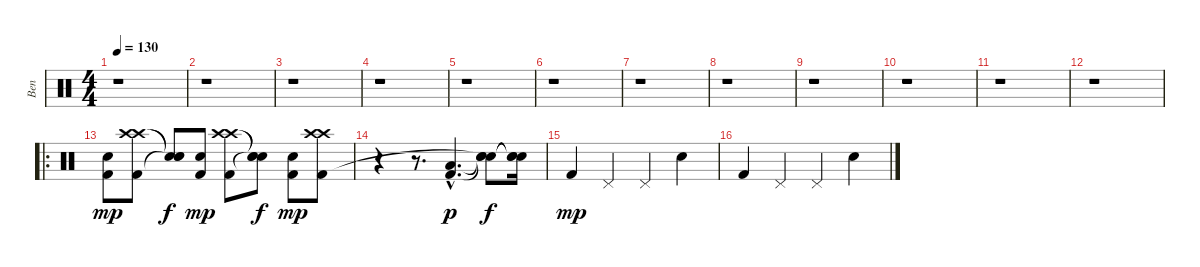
\track ("Ben" "Ben") {instrument percussion}
\staff {score}
\articulation defaults
\ts (4 4)
\tempo 130
\clef neutral
\ks c
r.1{dy mp} |
r.1 |
r.1 |
r.1 |
r.1 |
r.1 |
r.1 |
r.1 |
r.1 |
r.1 |
r.1 |
r.1 |
\ro
("Electric Snare (hit)" "Kick (hit) 2").8 ("Crash high (hit)" "Crash high (hit)" "Kick (hit) 2").8 ("Snare (hit)"{t} "Snare (hit)"{t} "Snare (hit)"{t}).8{dy f} ("Electric Snare (hit)" "Kick (hit) 2").8{dy mp} ("Crash high (hit)" "Crash high (hit)" "Kick (hit) 2").8 ("Snare (hit)"{t} "Snare (hit)"{t} "Snare (hit)"{t}).8{dy f} ("Electric Snare (hit)" "Kick (hit) 2").8{dy mp} ("Crash high (hit)" "Crash high (hit)" "Kick (hit) 2").8 |
r.4 r.8{d} ("Kick (hit) 2"{hac} "Low Tom (hit)"{hac}).4{d dy p} ("Snare (hit)"{t} "Snare (hit)"{t} "Snare (hit)"{t}).8{dy f} ("Snare (hit)"{t} "Snare (hit)"{t} "Snare (hit)"{t}).16 |
"Kick (hit) 2".4{dy mp} "Pedal Hi-Hat (hit)".4 "Pedal Hi-Hat (hit)".4 "Electric Snare (hit)".4 |
"Kick (hit) 2".4 "Pedal Hi-Hat (hit)".4 "Pedal Hi-Hat (hit)".4 "Electric Snare (hit)".4
